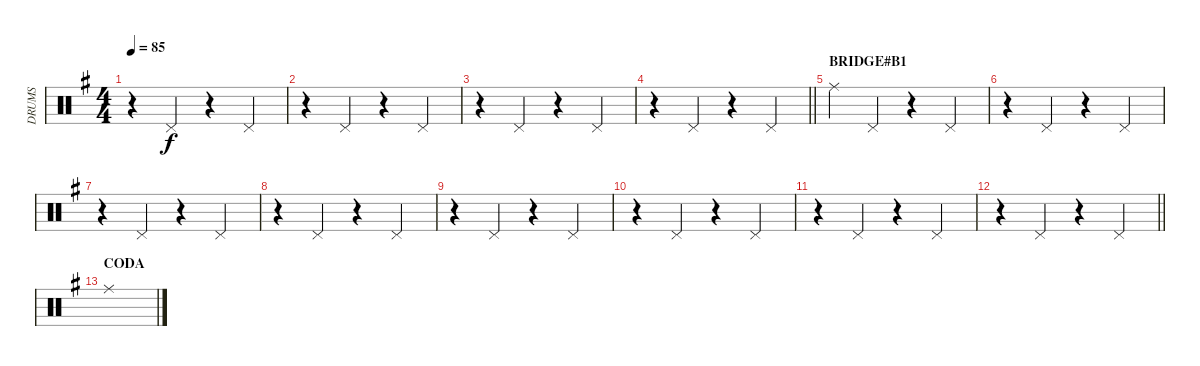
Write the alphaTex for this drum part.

\track ("DRUMS" "DRUMS") {instrument percussion}
\staff {score}
\articulation defaults
\ts (4 4)
\tempo 85
\clef neutral
\ks g
r.4{dy f} "Pedal Hi-Hat (hit)".4 r.4 "Pedal Hi-Hat (hit)".4 |
r.4 "Pedal Hi-Hat (hit)".4 r.4 "Pedal Hi-Hat (hit)".4 |
r.4 "Pedal Hi-Hat (hit)".4 r.4 "Pedal Hi-Hat (hit)".4 |
\barLineRight lightlight
r.4 "Pedal Hi-Hat (hit)".4 r.4 "Pedal Hi-Hat (hit)".4 |
\section ("" "BRIDGE#B1")
"Ride (middle)".4 "Pedal Hi-Hat (hit)".4 r.4 "Pedal Hi-Hat (hit)".4 |
r.4 "Pedal Hi-Hat (hit)".4 r.4 "Pedal Hi-Hat (hit)".4 |
r.4 "Pedal Hi-Hat (hit)".4 r.4 "Pedal Hi-Hat (hit)".4 |
r.4 "Pedal Hi-Hat (hit)".4 r.4 "Pedal Hi-Hat (hit)".4 |
r.4 "Pedal Hi-Hat (hit)".4 r.4 "Pedal Hi-Hat (hit)".4 |
r.4 "Pedal Hi-Hat (hit)".4 r.4 "Pedal Hi-Hat (hit)".4 |
r.4 "Pedal Hi-Hat (hit)".4 r.4 "Pedal Hi-Hat (hit)".4 |
\barLineRight lightlight
r.4 "Pedal Hi-Hat (hit)".4 r.4 "Pedal Hi-Hat (hit)".4 |
\section ("" "CODA")
"Ride (middle)".1
